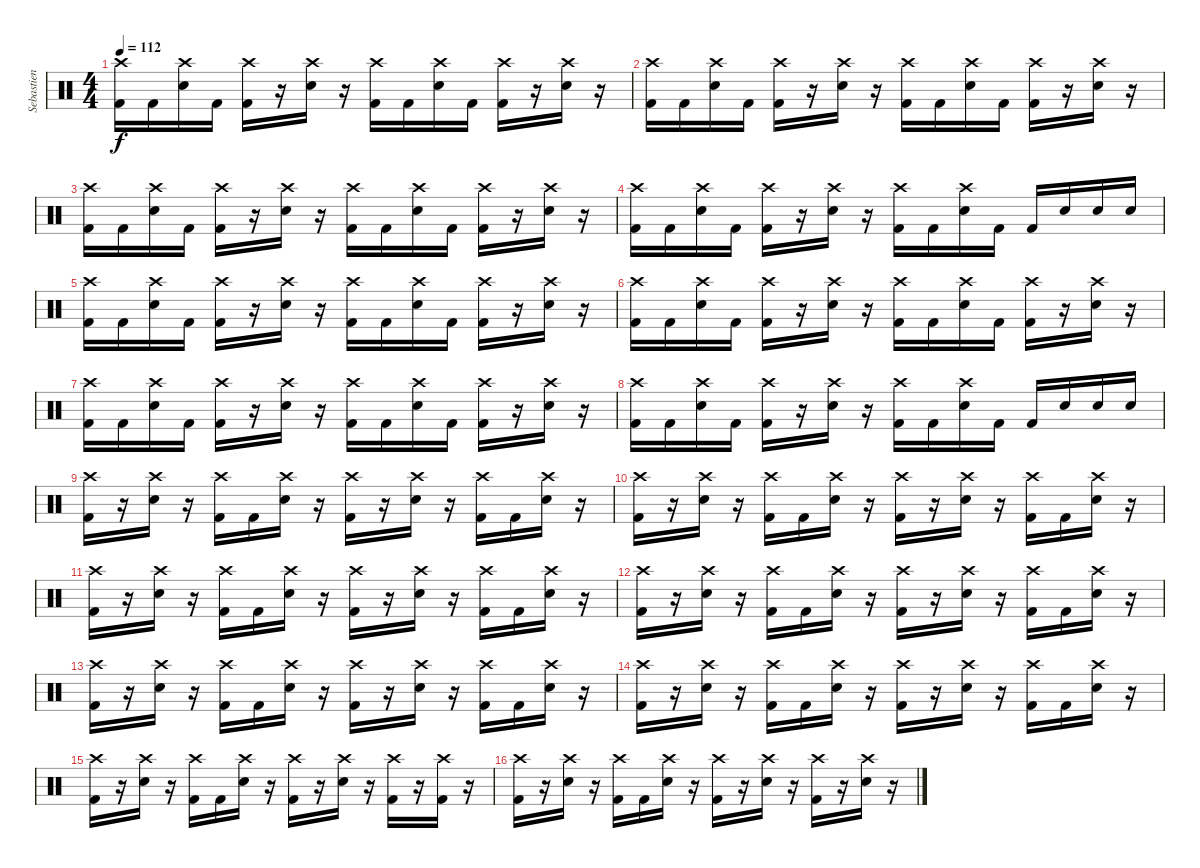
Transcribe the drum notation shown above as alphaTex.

\track ("Sebastien Grainger" "Sebastien ") {instrument percussion}
\staff {score}
\articulation defaults
\ts (4 4)
\tempo 112
\clef neutral
\ks c
("Crash high (hit)" "Kick (hit) 2").16{dy f} "Kick (hit) 2".16 ("Crash high (hit)" "Snare (hit) 2").16 "Kick (hit) 2".16 ("Crash high (hit)" "Kick (hit) 2").16 r.16 ("Crash high (hit)" "Snare (hit) 2").16 r.16 ("Crash high (hit)" "Kick (hit) 2").16 "Kick (hit) 2".16 ("Crash high (hit)" "Snare (hit) 2").16 "Kick (hit) 2".16 ("Crash high (hit)" "Kick (hit) 2").16 r.16 ("Crash high (hit)" "Snare (hit) 2").16 r.16 |
("Crash high (hit)" "Kick (hit) 2").16 "Kick (hit) 2".16 ("Crash high (hit)" "Snare (hit) 2").16 "Kick (hit) 2".16 ("Crash high (hit)" "Kick (hit) 2").16 r.16 ("Crash high (hit)" "Snare (hit) 2").16 r.16 ("Crash high (hit)" "Kick (hit) 2").16 "Kick (hit) 2".16 ("Crash high (hit)" "Snare (hit) 2").16 "Kick (hit) 2".16 ("Crash high (hit)" "Kick (hit) 2").16 r.16 ("Crash high (hit)" "Snare (hit) 2").16 r.16 |
("Crash high (hit)" "Kick (hit) 2").16 "Kick (hit) 2".16 ("Crash high (hit)" "Snare (hit) 2").16 "Kick (hit) 2".16 ("Crash high (hit)" "Kick (hit) 2").16 r.16 ("Crash high (hit)" "Snare (hit) 2").16 r.16 ("Crash high (hit)" "Kick (hit) 2").16 "Kick (hit) 2".16 ("Crash high (hit)" "Snare (hit) 2").16 "Kick (hit) 2".16 ("Crash high (hit)" "Kick (hit) 2").16 r.16 ("Crash high (hit)" "Snare (hit) 2").16 r.16 |
("Crash high (hit)" "Kick (hit) 2").16 "Kick (hit) 2".16 ("Crash high (hit)" "Snare (hit) 2").16 "Kick (hit) 2".16 ("Crash high (hit)" "Kick (hit) 2").16 r.16 ("Crash high (hit)" "Snare (hit) 2").16 r.16 ("Crash high (hit)" "Kick (hit) 2").16 "Kick (hit) 2".16 ("Crash high (hit)" "Snare (hit) 2").16 "Kick (hit) 2".16 "Kick (hit) 2".16 "Snare (hit) 2".16 "Snare (hit) 2".16 "Snare (hit) 2".16 |
("Crash high (hit)" "Kick (hit) 2").16 "Kick (hit) 2".16 ("Crash high (hit)" "Snare (hit) 2").16 "Kick (hit) 2".16 ("Crash high (hit)" "Kick (hit) 2").16 r.16 ("Crash high (hit)" "Snare (hit) 2").16 r.16 ("Crash high (hit)" "Kick (hit) 2").16 "Kick (hit) 2".16 ("Crash high (hit)" "Snare (hit) 2").16 "Kick (hit) 2".16 ("Crash high (hit)" "Kick (hit) 2").16 r.16 ("Crash high (hit)" "Snare (hit) 2").16 r.16 |
("Crash high (hit)" "Kick (hit) 2").16 "Kick (hit) 2".16 ("Crash high (hit)" "Snare (hit) 2").16 "Kick (hit) 2".16 ("Crash high (hit)" "Kick (hit) 2").16 r.16 ("Crash high (hit)" "Snare (hit) 2").16 r.16 ("Crash high (hit)" "Kick (hit) 2").16 "Kick (hit) 2".16 ("Crash high (hit)" "Snare (hit) 2").16 "Kick (hit) 2".16 ("Crash high (hit)" "Kick (hit) 2").16 r.16 ("Crash high (hit)" "Snare (hit) 2").16 r.16 |
("Crash high (hit)" "Kick (hit) 2").16 "Kick (hit) 2".16 ("Crash high (hit)" "Snare (hit) 2").16 "Kick (hit) 2".16 ("Crash high (hit)" "Kick (hit) 2").16 r.16 ("Crash high (hit)" "Snare (hit) 2").16 r.16 ("Crash high (hit)" "Kick (hit) 2").16 "Kick (hit) 2".16 ("Crash high (hit)" "Snare (hit) 2").16 "Kick (hit) 2".16 ("Crash high (hit)" "Kick (hit) 2").16 r.16 ("Crash high (hit)" "Snare (hit) 2").16 r.16 |
("Crash high (hit)" "Kick (hit) 2").16 "Kick (hit) 2".16 ("Crash high (hit)" "Snare (hit) 2").16 "Kick (hit) 2".16 ("Crash high (hit)" "Kick (hit) 2").16 r.16 ("Crash high (hit)" "Snare (hit) 2").16 r.16 ("Crash high (hit)" "Kick (hit) 2").16 "Kick (hit) 2".16 ("Crash high (hit)" "Snare (hit) 2").16 "Kick (hit) 2".16 "Kick (hit) 2".16 "Snare (hit) 2".16 "Snare (hit) 2".16 "Snare (hit) 2".16 |
("Crash high (hit)" "Kick (hit) 2").16 r.16 ("Crash high (hit)" "Snare (hit) 2").16 r.16 ("Crash high (hit)" "Kick (hit) 2").16 "Kick (hit) 2".16 ("Crash high (hit)" "Snare (hit) 2").16 r.16 ("Crash high (hit)" "Kick (hit) 2").16 r.16 ("Crash high (hit)" "Snare (hit) 2").16 r.16 ("Crash high (hit)" "Kick (hit) 2").16 "Kick (hit) 2".16 ("Crash high (hit)" "Snare (hit) 2").16 r.16 |
("Crash high (hit)" "Kick (hit) 2").16 r.16 ("Crash high (hit)" "Snare (hit) 2").16 r.16 ("Crash high (hit)" "Kick (hit) 2").16 "Kick (hit) 2".16 ("Crash high (hit)" "Snare (hit) 2").16 r.16 ("Crash high (hit)" "Kick (hit) 2").16 r.16 ("Crash high (hit)" "Snare (hit) 2").16 r.16 ("Crash high (hit)" "Kick (hit) 2").16 "Kick (hit) 2".16 ("Crash high (hit)" "Snare (hit) 2").16 r.16 |
("Crash high (hit)" "Kick (hit) 2").16 r.16 ("Crash high (hit)" "Snare (hit) 2").16 r.16 ("Crash high (hit)" "Kick (hit) 2").16 "Kick (hit) 2".16 ("Crash high (hit)" "Snare (hit) 2").16 r.16 ("Crash high (hit)" "Kick (hit) 2").16 r.16 ("Crash high (hit)" "Snare (hit) 2").16 r.16 ("Crash high (hit)" "Kick (hit) 2").16 "Kick (hit) 2".16 ("Crash high (hit)" "Snare (hit) 2").16 r.16 |
("Crash high (hit)" "Kick (hit) 2").16 r.16 ("Crash high (hit)" "Snare (hit) 2").16 r.16 ("Crash high (hit)" "Kick (hit) 2").16 "Kick (hit) 2".16 ("Crash high (hit)" "Snare (hit) 2").16 r.16 ("Crash high (hit)" "Kick (hit) 2").16 r.16 ("Crash high (hit)" "Snare (hit) 2").16 r.16 ("Crash high (hit)" "Kick (hit) 2").16 "Kick (hit) 2".16 ("Crash high (hit)" "Snare (hit) 2").16 r.16 |
("Crash high (hit)" "Kick (hit) 2").16 r.16 ("Crash high (hit)" "Snare (hit) 2").16 r.16 ("Crash high (hit)" "Kick (hit) 2").16 "Kick (hit) 2".16 ("Crash high (hit)" "Snare (hit) 2").16 r.16 ("Crash high (hit)" "Kick (hit) 2").16 r.16 ("Crash high (hit)" "Snare (hit) 2").16 r.16 ("Crash high (hit)" "Kick (hit) 2").16 "Kick (hit) 2".16 ("Crash high (hit)" "Snare (hit) 2").16 r.16 |
("Crash high (hit)" "Kick (hit) 2").16 r.16 ("Crash high (hit)" "Snare (hit) 2").16 r.16 ("Crash high (hit)" "Kick (hit) 2").16 "Kick (hit) 2".16 ("Crash high (hit)" "Snare (hit) 2").16 r.16 ("Crash high (hit)" "Kick (hit) 2").16 r.16 ("Crash high (hit)" "Snare (hit) 2").16 r.16 ("Crash high (hit)" "Kick (hit) 2").16 "Kick (hit) 2".16 ("Crash high (hit)" "Snare (hit) 2").16 r.16 |
("Crash high (hit)" "Kick (hit) 2").16 r.16 ("Crash high (hit)" "Snare (hit) 2").16 r.16 ("Crash high (hit)" "Kick (hit) 2").16 "Kick (hit) 2".16 ("Crash high (hit)" "Snare (hit) 2").16 r.16 ("Crash high (hit)" "Kick (hit) 2").16 r.16 ("Crash high (hit)" "Snare (hit) 2").16 r.16 ("Crash high (hit)" "Kick (hit) 2").16 r.16 ("Crash high (hit)" "Kick (hit) 2").16 r.16 |
("Crash high (hit)" "Kick (hit) 2").16 r.16 ("Crash high (hit)" "Snare (hit) 2").16 r.16 ("Crash high (hit)" "Kick (hit) 2").16 "Kick (hit) 2".16 ("Crash high (hit)" "Snare (hit) 2").16 r.16 ("Crash high (hit)" "Kick (hit) 2").16 r.16 ("Crash high (hit)" "Snare (hit) 2").16 r.16 ("Crash high (hit)" "Kick (hit) 2").16 r.16 ("Crash high (hit)" "Snare (hit) 2").16 r.16
